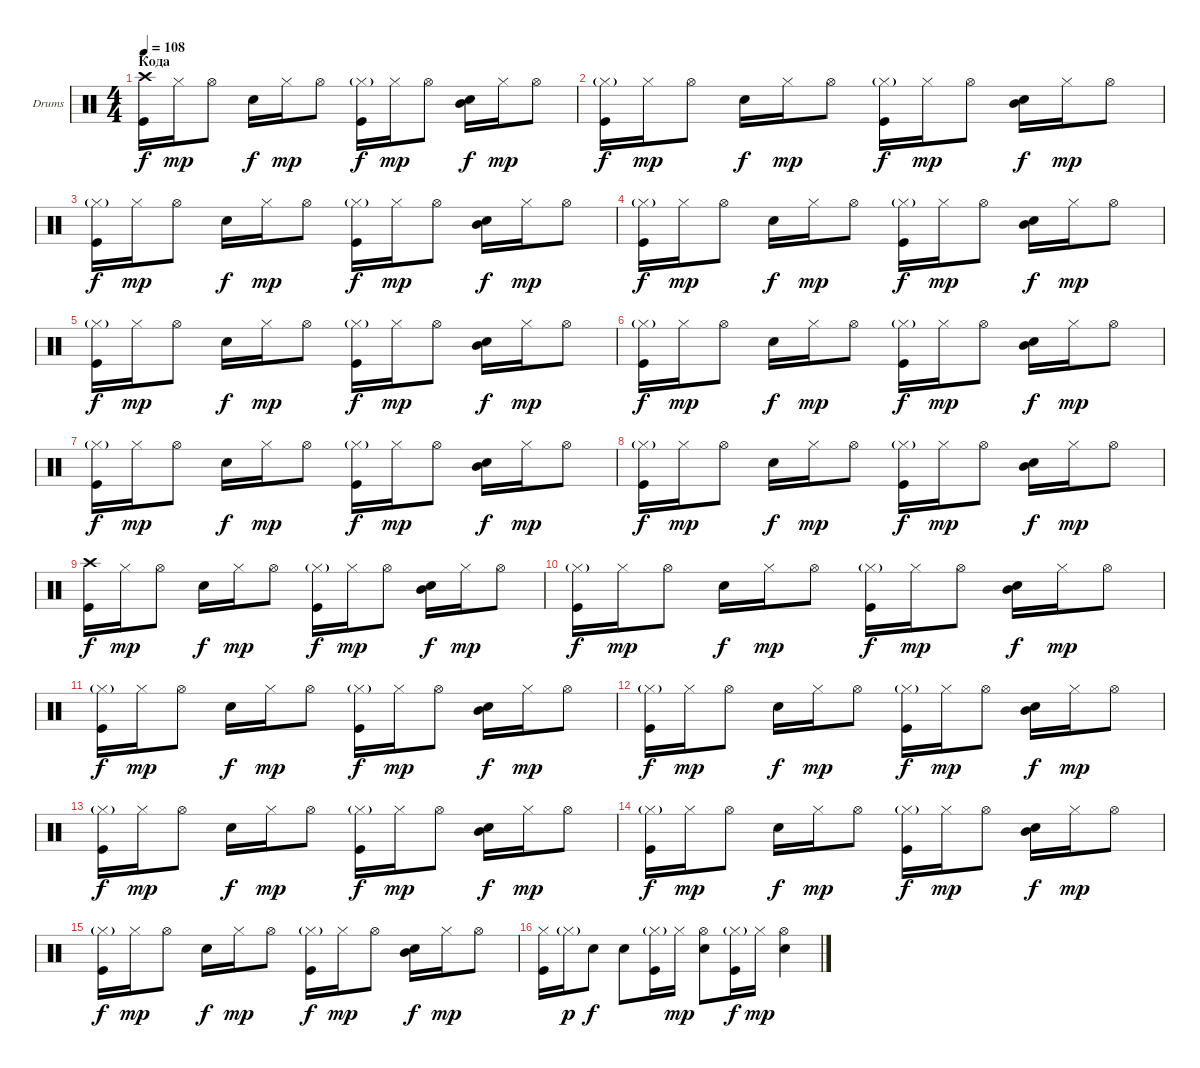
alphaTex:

\bracketExtendMode groupsimilarinstruments
\firstSystemTrackNameOrientation horizontal
\otherSystemsTrackNameOrientation horizontal
\track ("Е. Кулаков" "Drums") {instrument percussion}
\staff {score}
\articulation defaults
\ts (4 4)
\section ("" "Кода")
\tempo 108
\clef neutral
\ks c
("Crash high (hit)" "Kick (hit)").16{dy f} "Hi-Hat (closed)".16{dy mp} "Hi-Hat (open)".8 "Snare (hit) 2".16{dy f} "Hi-Hat (closed)".16{dy mp} "Hi-Hat (open)".8 ("Hi-Hat (closed)"{g} "Kick (hit)").16{dy f} "Hi-Hat (closed)".16{dy mp} "Hi-Hat (open)".8 ("Snare (hit) 2" "Mid Tom (hit)").16{dy f} "Hi-Hat (closed)".16{dy mp} "Hi-Hat (open)".8 |
("Hi-Hat (closed)"{g} "Kick (hit)").16{dy f} "Hi-Hat (closed)".16{dy mp} "Hi-Hat (open)".8 "Snare (hit) 2".16{dy f} "Hi-Hat (closed)".16{dy mp} "Hi-Hat (open)".8 ("Hi-Hat (closed)"{g} "Kick (hit)").16{dy f} "Hi-Hat (closed)".16{dy mp} "Hi-Hat (open)".8 ("Snare (hit) 2" "Mid Tom (hit)").16{dy f} "Hi-Hat (closed)".16{dy mp} "Hi-Hat (open)".8 |
("Hi-Hat (closed)"{g} "Kick (hit)").16{dy f} "Hi-Hat (closed)".16{dy mp} "Hi-Hat (open)".8 "Snare (hit) 2".16{dy f} "Hi-Hat (closed)".16{dy mp} "Hi-Hat (open)".8 ("Hi-Hat (closed)"{g} "Kick (hit)").16{dy f} "Hi-Hat (closed)".16{dy mp} "Hi-Hat (open)".8 ("Snare (hit) 2" "Mid Tom (hit)").16{dy f} "Hi-Hat (closed)".16{dy mp} "Hi-Hat (open)".8 |
("Hi-Hat (closed)"{g} "Kick (hit)").16{dy f} "Hi-Hat (closed)".16{dy mp} "Hi-Hat (open)".8 "Snare (hit) 2".16{dy f} "Hi-Hat (closed)".16{dy mp} "Hi-Hat (open)".8 ("Hi-Hat (closed)"{g} "Kick (hit)").16{dy f} "Hi-Hat (closed)".16{dy mp} "Hi-Hat (open)".8 ("Snare (hit) 2" "Mid Tom (hit)").16{dy f} "Hi-Hat (closed)".16{dy mp} "Hi-Hat (open)".8 |
("Hi-Hat (closed)"{g} "Kick (hit)").16{dy f} "Hi-Hat (closed)".16{dy mp} "Hi-Hat (open)".8 "Snare (hit) 2".16{dy f} "Hi-Hat (closed)".16{dy mp} "Hi-Hat (open)".8 ("Hi-Hat (closed)"{g} "Kick (hit)").16{dy f} "Hi-Hat (closed)".16{dy mp} "Hi-Hat (open)".8 ("Snare (hit) 2" "Mid Tom (hit)").16{dy f} "Hi-Hat (closed)".16{dy mp} "Hi-Hat (open)".8 |
("Hi-Hat (closed)"{g} "Kick (hit)").16{dy f} "Hi-Hat (closed)".16{dy mp} "Hi-Hat (open)".8 "Snare (hit) 2".16{dy f} "Hi-Hat (closed)".16{dy mp} "Hi-Hat (open)".8 ("Hi-Hat (closed)"{g} "Kick (hit)").16{dy f} "Hi-Hat (closed)".16{dy mp} "Hi-Hat (open)".8 ("Snare (hit) 2" "Mid Tom (hit)").16{dy f} "Hi-Hat (closed)".16{dy mp} "Hi-Hat (open)".8 |
("Hi-Hat (closed)"{g} "Kick (hit)").16{dy f} "Hi-Hat (closed)".16{dy mp} "Hi-Hat (open)".8 "Snare (hit) 2".16{dy f} "Hi-Hat (closed)".16{dy mp} "Hi-Hat (open)".8 ("Hi-Hat (closed)"{g} "Kick (hit)").16{dy f} "Hi-Hat (closed)".16{dy mp} "Hi-Hat (open)".8 ("Snare (hit) 2" "Mid Tom (hit)").16{dy f} "Hi-Hat (closed)".16{dy mp} "Hi-Hat (open)".8 |
("Hi-Hat (closed)"{g} "Kick (hit)").16{dy f} "Hi-Hat (closed)".16{dy mp} "Hi-Hat (open)".8 "Snare (hit) 2".16{dy f} "Hi-Hat (closed)".16{dy mp} "Hi-Hat (open)".8 ("Hi-Hat (closed)"{g} "Kick (hit)").16{dy f} "Hi-Hat (closed)".16{dy mp} "Hi-Hat (open)".8 ("Snare (hit) 2" "Mid Tom (hit)").16{dy f} "Hi-Hat (closed)".16{dy mp} "Hi-Hat (open)".8 |
("Crash high (hit)" "Kick (hit)").16{dy f} "Hi-Hat (closed)".16{dy mp} "Hi-Hat (open)".8 "Snare (hit) 2".16{dy f} "Hi-Hat (closed)".16{dy mp} "Hi-Hat (open)".8 ("Hi-Hat (closed)"{g} "Kick (hit)").16{dy f} "Hi-Hat (closed)".16{dy mp} "Hi-Hat (open)".8 ("Snare (hit) 2" "Mid Tom (hit)").16{dy f} "Hi-Hat (closed)".16{dy mp} "Hi-Hat (open)".8 |
("Hi-Hat (closed)"{g} "Kick (hit)").16{dy f} "Hi-Hat (closed)".16{dy mp} "Hi-Hat (open)".8 "Snare (hit) 2".16{dy f} "Hi-Hat (closed)".16{dy mp} "Hi-Hat (open)".8 ("Hi-Hat (closed)"{g} "Kick (hit)").16{dy f} "Hi-Hat (closed)".16{dy mp} "Hi-Hat (open)".8 ("Snare (hit) 2" "Mid Tom (hit)").16{dy f} "Hi-Hat (closed)".16{dy mp} "Hi-Hat (open)".8 |
("Hi-Hat (closed)"{g} "Kick (hit)").16{dy f} "Hi-Hat (closed)".16{dy mp} "Hi-Hat (open)".8 "Snare (hit) 2".16{dy f} "Hi-Hat (closed)".16{dy mp} "Hi-Hat (open)".8 ("Hi-Hat (closed)"{g} "Kick (hit)").16{dy f} "Hi-Hat (closed)".16{dy mp} "Hi-Hat (open)".8 ("Snare (hit) 2" "Mid Tom (hit)").16{dy f} "Hi-Hat (closed)".16{dy mp} "Hi-Hat (open)".8 |
("Hi-Hat (closed)"{g} "Kick (hit)").16{dy f} "Hi-Hat (closed)".16{dy mp} "Hi-Hat (open)".8 "Snare (hit) 2".16{dy f} "Hi-Hat (closed)".16{dy mp} "Hi-Hat (open)".8 ("Hi-Hat (closed)"{g} "Kick (hit)").16{dy f} "Hi-Hat (closed)".16{dy mp} "Hi-Hat (open)".8 ("Snare (hit) 2" "Mid Tom (hit)").16{dy f} "Hi-Hat (closed)".16{dy mp} "Hi-Hat (open)".8 |
("Hi-Hat (closed)"{g} "Kick (hit)").16{dy f} "Hi-Hat (closed)".16{dy mp} "Hi-Hat (open)".8 "Snare (hit) 2".16{dy f} "Hi-Hat (closed)".16{dy mp} "Hi-Hat (open)".8 ("Hi-Hat (closed)"{g} "Kick (hit)").16{dy f} "Hi-Hat (closed)".16{dy mp} "Hi-Hat (open)".8 ("Snare (hit) 2" "Mid Tom (hit)").16{dy f} "Hi-Hat (closed)".16{dy mp} "Hi-Hat (open)".8 |
("Hi-Hat (closed)"{g} "Kick (hit)").16{dy f} "Hi-Hat (closed)".16{dy mp} "Hi-Hat (open)".8 "Snare (hit) 2".16{dy f} "Hi-Hat (closed)".16{dy mp} "Hi-Hat (open)".8 ("Hi-Hat (closed)"{g} "Kick (hit)").16{dy f} "Hi-Hat (closed)".16{dy mp} "Hi-Hat (open)".8 ("Snare (hit) 2" "Mid Tom (hit)").16{dy f} "Hi-Hat (closed)".16{dy mp} "Hi-Hat (open)".8 |
("Hi-Hat (closed)"{g} "Kick (hit)").16{dy f} "Hi-Hat (closed)".16{dy mp} "Hi-Hat (open)".8 "Snare (hit) 2".16{dy f} "Hi-Hat (closed)".16{dy mp} "Hi-Hat (open)".8 ("Hi-Hat (closed)"{g} "Kick (hit)").16{dy f} "Hi-Hat (closed)".16{dy mp} "Hi-Hat (open)".8 ("Snare (hit) 2" "Mid Tom (hit)").16{dy f} "Hi-Hat (closed)".16{dy mp} "Hi-Hat (open)".8 |
("Hi-Hat (closed)" "Kick (hit)").16 "Hi-Hat (closed)"{g}.16{dy p} "Snare (hit) 2".8{dy f} "Snare (hit) 2".8 ("Hi-Hat (closed)"{g} "Kick (hit)").16 "Hi-Hat (closed)".16{dy mp} ("Hi-Hat (open)" "Snare (hit) 2").8 ("Hi-Hat (closed)"{g} "Kick (hit)").16{dy f} "Hi-Hat (closed)".16{dy mp} ("Hi-Hat (open)" "Snare (hit) 2").4
